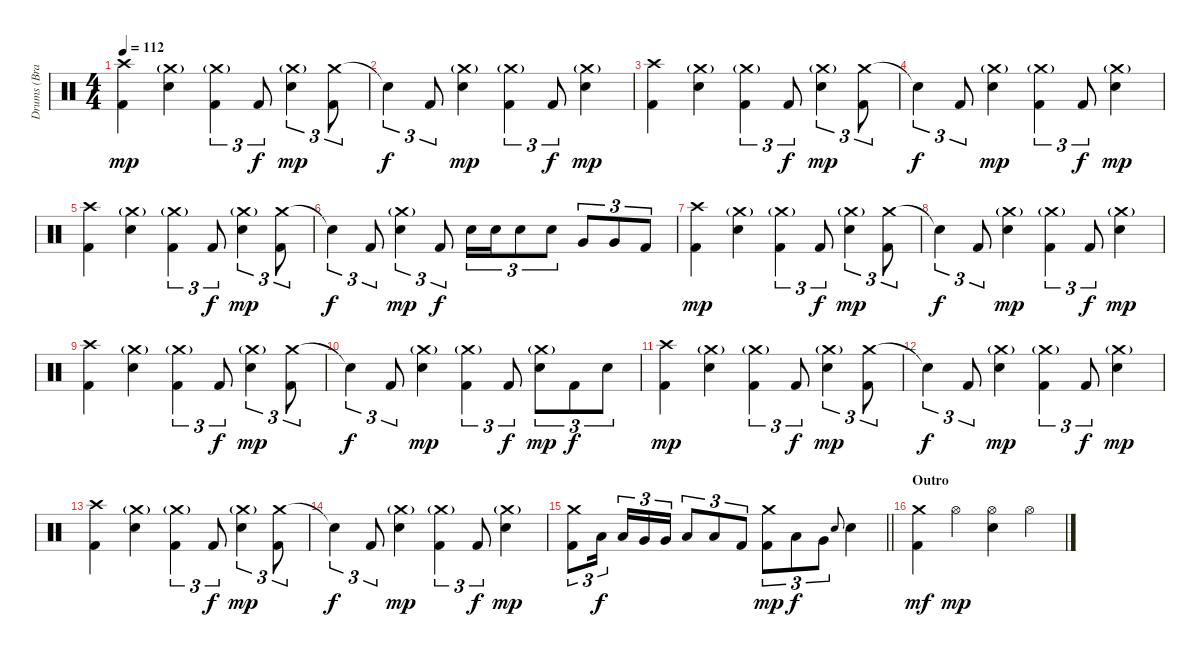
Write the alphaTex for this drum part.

\track ("Drums (Brandon Saller)" "Drums (Bra") {instrument percussion}
\staff {score}
\articulation defaults
\ts (4 4)
\tempo 112
\clef neutral
\ks c
("Crash high (hit)" "Kick (hit) 2").4{dy mp} ("Crash medium (hit)"{g} "Electric Snare (hit)").4 ("Crash medium (hit)"{g} "Kick (hit) 2").4{tu (3 2)} "Kick (hit) 2".8{tu (3 2) dy f} ("Crash medium (hit)"{g} "Electric Snare (hit)").4{tu (3 2) dy mp} ("Crash medium (hit)" "Kick (hit) 2").8{tu (3 2)} |
"Snare (hit)"{t}.4{tu (3 2) dy f} "Kick (hit) 2".8{tu (3 2)} ("Crash medium (hit)"{g} "Electric Snare (hit)").4{dy mp} ("Crash medium (hit)"{g} "Kick (hit) 2").4{tu (3 2)} "Kick (hit) 2".8{tu (3 2) dy f} ("Crash medium (hit)"{g} "Electric Snare (hit)").4{dy mp} |
("Crash high (hit)" "Kick (hit) 2").4 ("Crash medium (hit)"{g} "Electric Snare (hit)").4 ("Crash medium (hit)"{g} "Kick (hit) 2").4{tu (3 2)} "Kick (hit) 2".8{tu (3 2) dy f} ("Crash medium (hit)"{g} "Electric Snare (hit)").4{tu (3 2) dy mp} ("Crash medium (hit)" "Kick (hit) 2").8{tu (3 2)} |
"Snare (hit)"{t}.4{tu (3 2) dy f} "Kick (hit) 2".8{tu (3 2)} ("Crash medium (hit)"{g} "Electric Snare (hit)").4{dy mp} ("Crash medium (hit)"{g} "Kick (hit) 2").4{tu (3 2)} "Kick (hit) 2".8{tu (3 2) dy f} ("Crash medium (hit)"{g} "Electric Snare (hit)").4{dy mp} |
("Crash high (hit)" "Kick (hit) 2").4 ("Crash medium (hit)"{g} "Electric Snare (hit)").4 ("Crash medium (hit)"{g} "Kick (hit) 2").4{tu (3 2)} "Kick (hit) 2".8{tu (3 2) dy f} ("Crash medium (hit)"{g} "Electric Snare (hit)").4{tu (3 2) dy mp} ("Crash medium (hit)" "Kick (hit) 2").8{tu (3 2)} |
"Snare (hit)"{t}.4{tu (3 2) dy f} "Kick (hit) 2".8{tu (3 2)} ("Crash medium (hit)"{g} "Electric Snare (hit)").4{tu (3 2) dy mp} "Kick (hit) 2".8{tu (3 2) dy f} "Electric Snare (hit)".16{tu (3 2)} "Electric Snare (hit)".16{tu (3 2)} "Electric Snare (hit)".8{tu (3 2)} "Electric Snare (hit)".8{tu (3 2)} "Very Low Tom (hit)".8{tu (3 2)} "Very Low Tom (hit)".8{tu (3 2)} "Kick (hit) 2".8{tu (3 2)} |
("Crash high (hit)" "Kick (hit) 2").4{dy mp} ("Crash medium (hit)"{g} "Electric Snare (hit)").4 ("Crash medium (hit)"{g} "Kick (hit) 2").4{tu (3 2)} "Kick (hit) 2".8{tu (3 2) dy f} ("Crash medium (hit)"{g} "Electric Snare (hit)").4{tu (3 2) dy mp} ("Crash medium (hit)" "Kick (hit) 2").8{tu (3 2)} |
"Snare (hit)"{t}.4{tu (3 2) dy f} "Kick (hit) 2".8{tu (3 2)} ("Crash medium (hit)"{g} "Electric Snare (hit)").4{dy mp} ("Crash medium (hit)"{g} "Kick (hit) 2").4{tu (3 2)} "Kick (hit) 2".8{tu (3 2) dy f} ("Crash medium (hit)"{g} "Electric Snare (hit)").4{dy mp} |
("Crash high (hit)" "Kick (hit) 2").4 ("Crash medium (hit)"{g} "Electric Snare (hit)").4 ("Crash medium (hit)"{g} "Kick (hit) 2").4{tu (3 2)} "Kick (hit) 2".8{tu (3 2) dy f} ("Crash medium (hit)"{g} "Electric Snare (hit)").4{tu (3 2) dy mp} ("Crash medium (hit)" "Kick (hit) 2").8{tu (3 2)} |
"Snare (hit)"{t}.4{tu (3 2) dy f} "Kick (hit) 2".8{tu (3 2)} ("Crash medium (hit)"{g} "Electric Snare (hit)").4{dy mp} ("Crash medium (hit)"{g} "Kick (hit) 2").4{tu (3 2)} "Kick (hit) 2".8{tu (3 2) dy f} ("Crash medium (hit)"{g} "Electric Snare (hit)").8{tu (3 2) dy mp} "Kick (hit) 2".8{tu (3 2) dy f} "Electric Snare (hit)".8{tu (3 2)} |
("Crash high (hit)" "Kick (hit) 2").4{dy mp} ("Crash medium (hit)"{g} "Electric Snare (hit)").4 ("Crash medium (hit)"{g} "Kick (hit) 2").4{tu (3 2)} "Kick (hit) 2".8{tu (3 2) dy f} ("Crash medium (hit)"{g} "Electric Snare (hit)").4{tu (3 2) dy mp} ("Crash medium (hit)" "Kick (hit) 2").8{tu (3 2)} |
"Snare (hit)"{t}.4{tu (3 2) dy f} "Kick (hit) 2".8{tu (3 2)} ("Crash medium (hit)"{g} "Electric Snare (hit)").4{dy mp} ("Crash medium (hit)"{g} "Kick (hit) 2").4{tu (3 2)} "Kick (hit) 2".8{tu (3 2) dy f} ("Crash medium (hit)"{g} "Electric Snare (hit)").4{dy mp} |
("Crash high (hit)" "Kick (hit) 2").4 ("Crash medium (hit)"{g} "Electric Snare (hit)").4 ("Crash medium (hit)"{g} "Kick (hit) 2").4{tu (3 2)} "Kick (hit) 2".8{tu (3 2) dy f} ("Crash medium (hit)"{g} "Electric Snare (hit)").4{tu (3 2) dy mp} ("Crash medium (hit)" "Kick (hit) 2").8{tu (3 2)} |
"Snare (hit)"{t}.4{tu (3 2) dy f} "Kick (hit) 2".8{tu (3 2)} ("Crash medium (hit)"{g} "Electric Snare (hit)").4{dy mp} ("Crash medium (hit)"{g} "Kick (hit) 2").4{tu (3 2)} "Kick (hit) 2".8{tu (3 2) dy f} ("Crash medium (hit)"{g} "Electric Snare (hit)").4{dy mp} |
\barLineRight lightlight
("Crash medium (hit)" "Kick (hit) 2").8{tu (3 2)} "Low Tom (hit)".16{tu (3 2) dy f beam splitsecondary} "Low Tom (hit)".16{tu (3 2)} "Very Low Tom (hit)".16{tu (3 2)} "Very Low Tom (hit)".16{tu (3 2)} "Low Floor Tom (hit)".8{tu (3 2)} "Low Floor Tom (hit)".8{tu (3 2)} "Kick (hit) 2".8{tu (3 2)} ("Crash medium (hit)" "Kick (hit) 2").8{tu (3 2) dy mp} "Low Tom (hit)".8{tu (3 2) dy f} "Very Low Tom (hit)".8{tu (3 2)} "Electric Snare (hit)".8{gr onbeat} "Electric Snare (hit)".4 |
\section ("" "Outro")
("Crash medium (hit)" "Kick (hit) 2").4{dy mf} "Hi-Hat (open)".4{dy mp} ("Hi-Hat (open)" "Electric Snare (hit)").4 "Hi-Hat (open)".4
